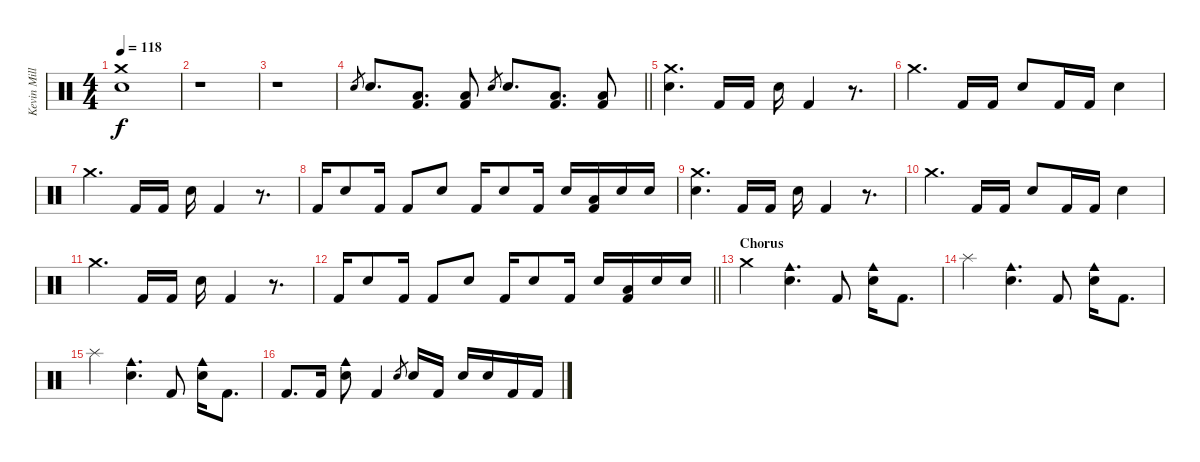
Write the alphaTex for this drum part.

\track ("Kevin Miller (Drums)" "Kevin Mill") {instrument percussion}
\staff {score}
\articulation defaults
\ts (4 4)
\tempo 118
\clef neutral
\ks c
("Crash medium (hit)" "Electric Snare (hit)").1{dy f} |
r.1 |
r.1 |
\barLineRight lightlight "Electric Snare (hit)".8{gr} "Electric Snare (hit)".8{d}
("Kick (hit) 2" "Low Tom (hit)").8{d} ("Kick (hit) 2" "Low Tom (hit)").8 "Electric Snare (hit)".8{gr} "Electric Snare (hit)".8{d} ("Kick (hit) 2" "Low Tom (hit)").8{d} ("Kick (hit) 2" "Low Tom (hit)").8 |
("Crash medium (hit)" "Electric Snare (hit)").4{d} "Kick (hit) 2".16 "Kick (hit) 2".16 "Electric Snare (hit)".16 "Kick (hit) 2".4 r.8{d} |
"Crash medium (hit)".4{d} "Kick (hit) 2".16 "Kick (hit) 2".16 "Electric Snare (hit)".8 "Kick (hit) 2".16 "Kick (hit) 2".16 "Electric Snare (hit)".4 |
"Crash medium (hit)".4{d} "Kick (hit) 2".16 "Kick (hit) 2".16 "Electric Snare (hit)".16 "Kick (hit) 2".4 r.8{d} |
"Kick (hit) 2".16 "Electric Snare (hit)".8 "Kick (hit) 2".16 "Kick (hit) 2".8 "Electric Snare (hit)".8 "Kick (hit) 2".16 "Electric Snare (hit)".8 "Kick (hit) 2".16 "Electric Snare (hit)".16 ("Kick (hit) 2" "Low Tom (hit)").16 "Electric Snare (hit)".16 "Electric Snare (hit)".16 |
("Crash medium (hit)" "Electric Snare (hit)").4{d} "Kick (hit) 2".16 "Kick (hit) 2".16 "Electric Snare (hit)".16 "Kick (hit) 2".4 r.8{d} |
"Crash medium (hit)".4{d} "Kick (hit) 2".16 "Kick (hit) 2".16 "Electric Snare (hit)".8 "Kick (hit) 2".16 "Kick (hit) 2".16 "Electric Snare (hit)".4 |
"Crash medium (hit)".4{d} "Kick (hit) 2".16 "Kick (hit) 2".16 "Electric Snare (hit)".16 "Kick (hit) 2".4 r.8{d} |
\barLineRight lightlight "Kick (hit) 2".16 "Electric Snare (hit)".8 "Kick (hit) 2".16 "Kick (hit) 2".8 "Electric Snare (hit)".8 "Kick (hit) 2".16 "Electric Snare (hit)".8 "Kick (hit) 2".16 "Electric Snare (hit)".16
("Kick (hit) 2" "Low Tom (hit)").16 "Electric Snare (hit)".16 "Electric Snare (hit)".16 |
\section ("" "Chorus")
"Crash medium (hit)".4 ("Electric Snare (hit)" "Cowbell medium (hit)").4{d} "Kick (hit) 2".8 ("Electric Snare (hit)" "Cowbell medium (hit)").16 "Kick (hit) 2".8{d} |
"Splash (hit)".4 ("Electric Snare (hit)" "Cowbell medium (hit)").4{d} "Kick (hit) 2".8 ("Electric Snare (hit)" "Cowbell medium (hit)").16 "Kick (hit) 2".8{d} |
"Splash (hit)".4 ("Electric Snare (hit)" "Cowbell medium (hit)").4{d} "Kick (hit) 2".8 ("Electric Snare (hit)" "Cowbell medium (hit)").16 "Kick (hit) 2".8{d} |
"Kick (hit) 2".8{d} "Kick (hit) 2".16 ("Electric Snare (hit)" "Cowbell medium (hit)").8 "Kick (hit) 2".4 "Electric Snare (hit)".8{gr} "Electric Snare (hit)".16 "Kick (hit) 2".16 "Electric Snare (hit)".16 "Electric Snare (hit)".16 "Kick (hit) 2".16 "Kick (hit) 2".16
